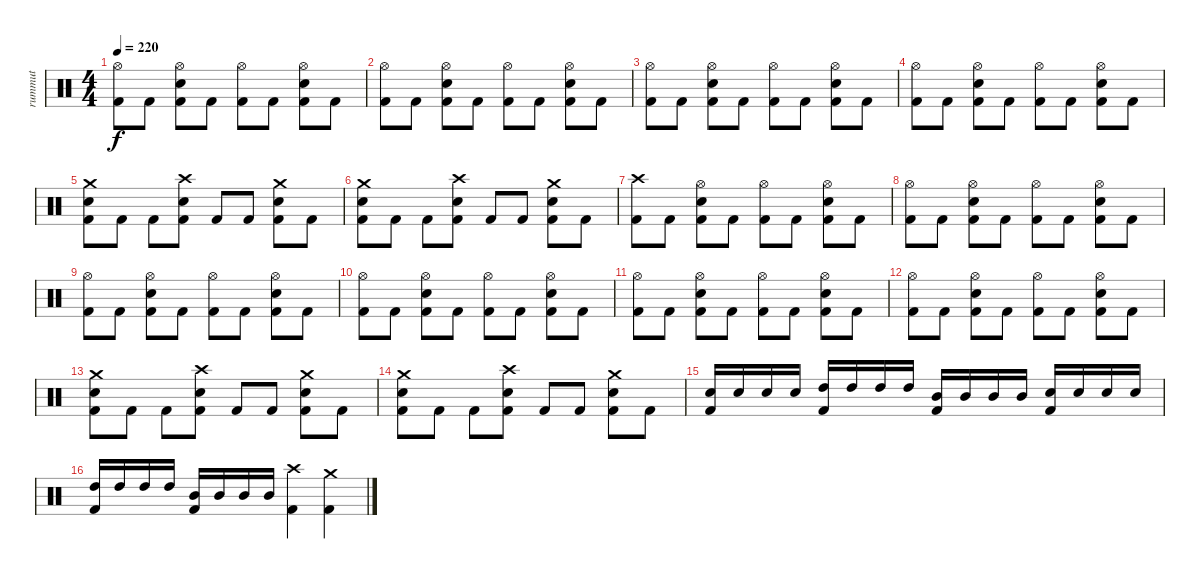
\track ("rummut" "rummut") {instrument percussion}
\staff {score}
\articulation defaults
\ts (4 4)
\tempo 220
\clef neutral
\ks c
("Hi-Hat (open)" "Kick (hit) 2").8{dy f} "Kick (hit) 2".8 ("Hi-Hat (open)" "Electric Snare (hit)" "Kick (hit) 2").8 "Kick (hit) 2".8 ("Hi-Hat (open)" "Kick (hit) 2").8 "Kick (hit) 2".8 ("Hi-Hat (open)" "Electric Snare (hit)" "Kick (hit) 2").8 "Kick (hit) 2".8 |
("Hi-Hat (open)" "Kick (hit) 2").8 "Kick (hit) 2".8 ("Hi-Hat (open)" "Electric Snare (hit)" "Kick (hit) 2").8 "Kick (hit) 2".8 ("Hi-Hat (open)" "Kick (hit) 2").8 "Kick (hit) 2".8 ("Hi-Hat (open)" "Electric Snare (hit)" "Kick (hit) 2").8 "Kick (hit) 2".8 |
("Hi-Hat (open)" "Kick (hit) 2").8 "Kick (hit) 2".8 ("Hi-Hat (open)" "Electric Snare (hit)" "Kick (hit) 2").8 "Kick (hit) 2".8 ("Hi-Hat (open)" "Kick (hit) 2").8 "Kick (hit) 2".8 ("Hi-Hat (open)" "Electric Snare (hit)" "Kick (hit) 2").8 "Kick (hit) 2".8 |
("Hi-Hat (open)" "Kick (hit) 2").8 "Kick (hit) 2".8 ("Hi-Hat (open)" "Electric Snare (hit)" "Kick (hit) 2").8 "Kick (hit) 2".8 ("Hi-Hat (open)" "Kick (hit) 2").8 "Kick (hit) 2".8 ("Hi-Hat (open)" "Electric Snare (hit)" "Kick (hit) 2").8 "Kick (hit) 2".8 |
("Crash medium (hit)" "Electric Snare (hit)" "Kick (hit) 2").8 "Kick (hit) 2".8 "Kick (hit) 2".8 ("Crash high (hit)" "Electric Snare (hit)" "Kick (hit) 2").8 "Kick (hit) 2".8 "Kick (hit) 2".8 ("Crash medium (hit)" "Electric Snare (hit)" "Kick (hit) 2").8 "Kick (hit) 2".8 |
("Crash medium (hit)" "Electric Snare (hit)" "Kick (hit) 2").8 "Kick (hit) 2".8 "Kick (hit) 2".8 ("Crash high (hit)" "Electric Snare (hit)" "Kick (hit) 2").8 "Kick (hit) 2".8 "Kick (hit) 2".8 ("Crash medium (hit)" "Electric Snare (hit)" "Kick (hit) 2").8 "Kick (hit) 2".8 |
("Crash high (hit)" "Kick (hit) 2").8 "Kick (hit) 2".8 ("Hi-Hat (open)" "Electric Snare (hit)" "Kick (hit) 2").8 "Kick (hit) 2".8 ("Hi-Hat (open)" "Kick (hit) 2").8 "Kick (hit) 2".8 ("Hi-Hat (open)" "Electric Snare (hit)" "Kick (hit) 2").8 "Kick (hit) 2".8 |
("Hi-Hat (open)" "Kick (hit) 2").8 "Kick (hit) 2".8 ("Hi-Hat (open)" "Electric Snare (hit)" "Kick (hit) 2").8 "Kick (hit) 2".8 ("Hi-Hat (open)" "Kick (hit) 2").8 "Kick (hit) 2".8 ("Hi-Hat (open)" "Electric Snare (hit)" "Kick (hit) 2").8 "Kick (hit) 2".8 |
("Hi-Hat (open)" "Kick (hit) 2").8 "Kick (hit) 2".8 ("Hi-Hat (open)" "Electric Snare (hit)" "Kick (hit) 2").8 "Kick (hit) 2".8 ("Hi-Hat (open)" "Kick (hit) 2").8 "Kick (hit) 2".8 ("Hi-Hat (open)" "Electric Snare (hit)" "Kick (hit) 2").8 "Kick (hit) 2".8 |
("Hi-Hat (open)" "Kick (hit) 2").8 "Kick (hit) 2".8 ("Hi-Hat (open)" "Electric Snare (hit)" "Kick (hit) 2").8 "Kick (hit) 2".8 ("Hi-Hat (open)" "Kick (hit) 2").8 "Kick (hit) 2".8 ("Hi-Hat (open)" "Electric Snare (hit)" "Kick (hit) 2").8 "Kick (hit) 2".8 |
("Hi-Hat (open)" "Kick (hit) 2").8 "Kick (hit) 2".8 ("Hi-Hat (open)" "Electric Snare (hit)" "Kick (hit) 2").8 "Kick (hit) 2".8 ("Hi-Hat (open)" "Kick (hit) 2").8 "Kick (hit) 2".8 ("Hi-Hat (open)" "Electric Snare (hit)" "Kick (hit) 2").8 "Kick (hit) 2".8 |
("Hi-Hat (open)" "Kick (hit) 2").8 "Kick (hit) 2".8 ("Hi-Hat (open)" "Electric Snare (hit)" "Kick (hit) 2").8 "Kick (hit) 2".8 ("Hi-Hat (open)" "Kick (hit) 2").8 "Kick (hit) 2".8 ("Hi-Hat (open)" "Electric Snare (hit)" "Kick (hit) 2").8 "Kick (hit) 2".8 |
("Crash medium (hit)" "Electric Snare (hit)" "Kick (hit) 2").8 "Kick (hit) 2".8 "Kick (hit) 2".8 ("Crash high (hit)" "Electric Snare (hit)" "Kick (hit) 2").8 "Kick (hit) 2".8 "Kick (hit) 2".8 ("Crash medium (hit)" "Electric Snare (hit)" "Kick (hit) 2").8 "Kick (hit) 2".8 |
("Crash medium (hit)" "Electric Snare (hit)" "Kick (hit) 2").8 "Kick (hit) 2".8 "Kick (hit) 2".8 ("Crash high (hit)" "Electric Snare (hit)" "Kick (hit) 2").8 "Kick (hit) 2".8 "Kick (hit) 2".8 ("Crash medium (hit)" "Electric Snare (hit)" "Kick (hit) 2").8 "Kick (hit) 2".8 |
("Electric Snare (hit)" "Kick (hit) 2").16 "Electric Snare (hit)".16 "Electric Snare (hit)".16 "Electric Snare (hit)".16 ("High Tom (hit)" "Kick (hit) 2").16 "High Tom (hit)".16 "High Tom (hit)".16 "High Tom (hit)".16 ("Mid Tom (hit)" "Kick (hit) 2").16 "Mid Tom (hit)".16 "Mid Tom (hit)".16 "Mid Tom (hit)".16 ("Electric Snare (hit)" "Kick (hit) 2").16 "Electric Snare (hit)".16 "Electric Snare (hit)".16 "Electric Snare (hit)".16 |
("High Tom (hit)" "Kick (hit) 2").16 "High Tom (hit)".16 "High Tom (hit)".16 "High Tom (hit)".16 ("Mid Tom (hit)" "Kick (hit) 2").16 "Mid Tom (hit)".16 "Mid Tom (hit)".16 "Mid Tom (hit)".16 ("Crash high (hit)" "Kick (hit) 2").4 ("Crash medium (hit)" "Kick (hit) 2").4
